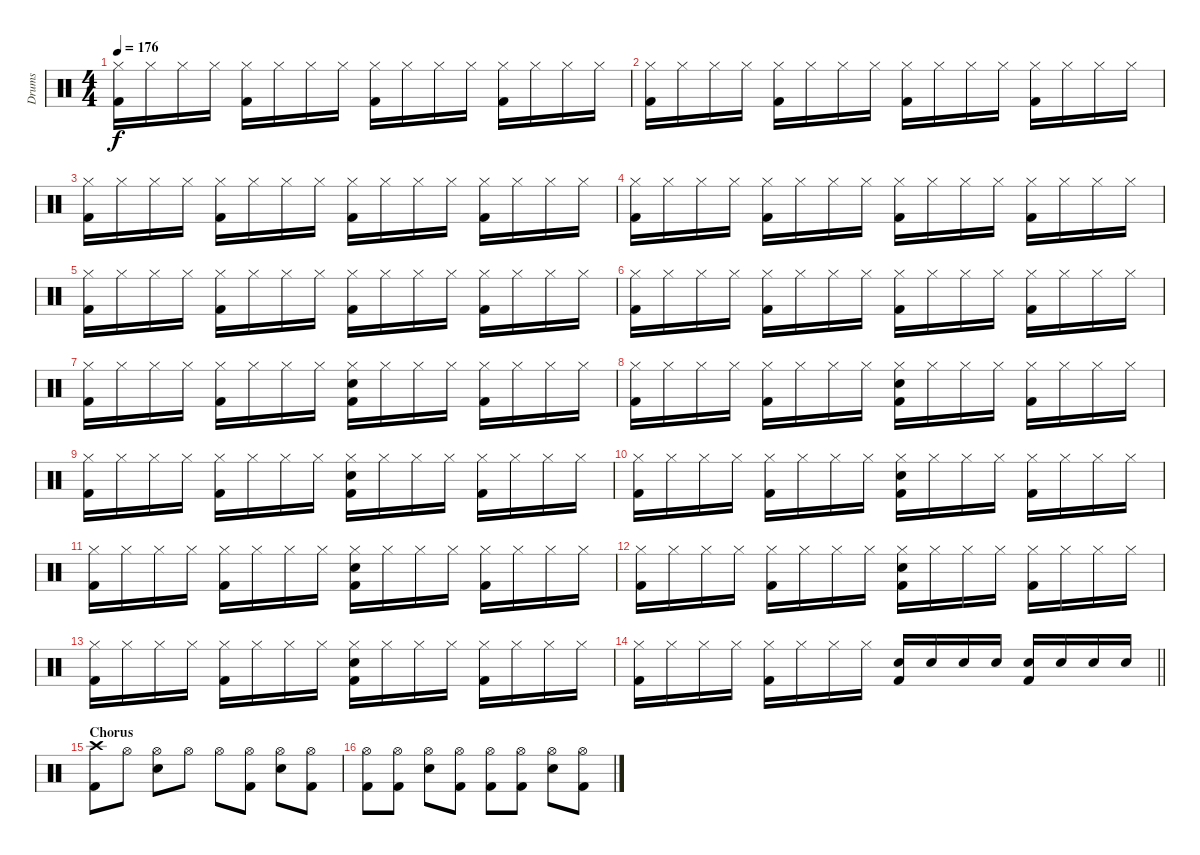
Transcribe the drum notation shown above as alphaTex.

\track ("Drums" "Drums") {instrument percussion}
\staff {score}
\articulation defaults
\ts (4 4)
\tempo 176
\clef neutral
\ks c
("Hi-Hat (closed)" "Kick (hit) 2").16{dy f} "Hi-Hat (closed)".16 "Hi-Hat (closed)".16 "Hi-Hat (closed)".16 ("Hi-Hat (closed)" "Kick (hit) 2").16 "Hi-Hat (closed)".16 "Hi-Hat (closed)".16 "Hi-Hat (closed)".16 ("Hi-Hat (closed)" "Kick (hit) 2").16 "Hi-Hat (closed)".16 "Hi-Hat (closed)".16 "Hi-Hat (closed)".16 ("Hi-Hat (closed)" "Kick (hit) 2").16 "Hi-Hat (closed)".16 "Hi-Hat (closed)".16 "Hi-Hat (closed)".16 |
("Hi-Hat (closed)" "Kick (hit) 2").16 "Hi-Hat (closed)".16 "Hi-Hat (closed)".16 "Hi-Hat (closed)".16 ("Hi-Hat (closed)" "Kick (hit) 2").16 "Hi-Hat (closed)".16 "Hi-Hat (closed)".16 "Hi-Hat (closed)".16 ("Hi-Hat (closed)" "Kick (hit) 2").16 "Hi-Hat (closed)".16 "Hi-Hat (closed)".16 "Hi-Hat (closed)".16 ("Hi-Hat (closed)" "Kick (hit) 2").16 "Hi-Hat (closed)".16 "Hi-Hat (closed)".16 "Hi-Hat (closed)".16 |
("Hi-Hat (closed)" "Kick (hit) 2").16 "Hi-Hat (closed)".16 "Hi-Hat (closed)".16 "Hi-Hat (closed)".16 ("Hi-Hat (closed)" "Kick (hit) 2").16 "Hi-Hat (closed)".16 "Hi-Hat (closed)".16 "Hi-Hat (closed)".16 ("Hi-Hat (closed)" "Kick (hit) 2").16 "Hi-Hat (closed)".16 "Hi-Hat (closed)".16 "Hi-Hat (closed)".16 ("Hi-Hat (closed)" "Kick (hit) 2").16 "Hi-Hat (closed)".16 "Hi-Hat (closed)".16 "Hi-Hat (closed)".16 |
("Hi-Hat (closed)" "Kick (hit) 2").16 "Hi-Hat (closed)".16 "Hi-Hat (closed)".16 "Hi-Hat (closed)".16 ("Hi-Hat (closed)" "Kick (hit) 2").16 "Hi-Hat (closed)".16 "Hi-Hat (closed)".16 "Hi-Hat (closed)".16 ("Hi-Hat (closed)" "Kick (hit) 2").16 "Hi-Hat (closed)".16 "Hi-Hat (closed)".16 "Hi-Hat (closed)".16 ("Hi-Hat (closed)" "Kick (hit) 2").16 "Hi-Hat (closed)".16 "Hi-Hat (closed)".16 "Hi-Hat (closed)".16 |
("Hi-Hat (closed)" "Kick (hit) 2").16 "Hi-Hat (closed)".16 "Hi-Hat (closed)".16 "Hi-Hat (closed)".16 ("Hi-Hat (closed)" "Kick (hit) 2").16 "Hi-Hat (closed)".16 "Hi-Hat (closed)".16 "Hi-Hat (closed)".16 ("Hi-Hat (closed)" "Kick (hit) 2").16 "Hi-Hat (closed)".16 "Hi-Hat (closed)".16 "Hi-Hat (closed)".16 ("Hi-Hat (closed)" "Kick (hit) 2").16 "Hi-Hat (closed)".16 "Hi-Hat (closed)".16 "Hi-Hat (closed)".16 |
("Hi-Hat (closed)" "Kick (hit) 2").16 "Hi-Hat (closed)".16 "Hi-Hat (closed)".16 "Hi-Hat (closed)".16 ("Hi-Hat (closed)" "Kick (hit) 2").16 "Hi-Hat (closed)".16 "Hi-Hat (closed)".16 "Hi-Hat (closed)".16 ("Hi-Hat (closed)" "Kick (hit) 2").16 "Hi-Hat (closed)".16 "Hi-Hat (closed)".16 "Hi-Hat (closed)".16 ("Hi-Hat (closed)" "Kick (hit) 2").16 "Hi-Hat (closed)".16 "Hi-Hat (closed)".16 "Hi-Hat (closed)".16 |
("Hi-Hat (closed)" "Kick (hit) 2").16 "Hi-Hat (closed)".16 "Hi-Hat (closed)".16 "Hi-Hat (closed)".16 ("Hi-Hat (closed)" "Kick (hit) 2").16 "Hi-Hat (closed)".16 "Hi-Hat (closed)".16 "Hi-Hat (closed)".16 ("Hi-Hat (closed)" "Electric Snare (hit)" "Kick (hit) 2").16 "Hi-Hat (closed)".16 "Hi-Hat (closed)".16 "Hi-Hat (closed)".16 ("Hi-Hat (closed)" "Kick (hit) 2").16 "Hi-Hat (closed)".16 "Hi-Hat (closed)".16 "Hi-Hat (closed)".16 |
("Hi-Hat (closed)" "Kick (hit) 2").16 "Hi-Hat (closed)".16 "Hi-Hat (closed)".16 "Hi-Hat (closed)".16 ("Hi-Hat (closed)" "Kick (hit) 2").16 "Hi-Hat (closed)".16 "Hi-Hat (closed)".16 "Hi-Hat (closed)".16 ("Hi-Hat (closed)" "Electric Snare (hit)" "Kick (hit) 2").16 "Hi-Hat (closed)".16 "Hi-Hat (closed)".16 "Hi-Hat (closed)".16 ("Hi-Hat (closed)" "Kick (hit) 2").16 "Hi-Hat (closed)".16 "Hi-Hat (closed)".16 "Hi-Hat (closed)".16 |
("Hi-Hat (closed)" "Kick (hit) 2").16 "Hi-Hat (closed)".16 "Hi-Hat (closed)".16 "Hi-Hat (closed)".16 ("Hi-Hat (closed)" "Kick (hit) 2").16 "Hi-Hat (closed)".16 "Hi-Hat (closed)".16 "Hi-Hat (closed)".16 ("Hi-Hat (closed)" "Electric Snare (hit)" "Kick (hit) 2").16 "Hi-Hat (closed)".16 "Hi-Hat (closed)".16 "Hi-Hat (closed)".16 ("Hi-Hat (closed)" "Kick (hit) 2").16 "Hi-Hat (closed)".16 "Hi-Hat (closed)".16 "Hi-Hat (closed)".16 |
("Hi-Hat (closed)" "Kick (hit) 2").16 "Hi-Hat (closed)".16 "Hi-Hat (closed)".16 "Hi-Hat (closed)".16 ("Hi-Hat (closed)" "Kick (hit) 2").16 "Hi-Hat (closed)".16 "Hi-Hat (closed)".16 "Hi-Hat (closed)".16 ("Hi-Hat (closed)" "Electric Snare (hit)" "Kick (hit) 2").16 "Hi-Hat (closed)".16 "Hi-Hat (closed)".16 "Hi-Hat (closed)".16 ("Hi-Hat (closed)" "Kick (hit) 2").16 "Hi-Hat (closed)".16 "Hi-Hat (closed)".16 "Hi-Hat (closed)".16 |
("Hi-Hat (closed)" "Kick (hit) 2").16 "Hi-Hat (closed)".16 "Hi-Hat (closed)".16 "Hi-Hat (closed)".16 ("Hi-Hat (closed)" "Kick (hit) 2").16 "Hi-Hat (closed)".16 "Hi-Hat (closed)".16 "Hi-Hat (closed)".16 ("Hi-Hat (closed)" "Electric Snare (hit)" "Kick (hit) 2").16 "Hi-Hat (closed)".16 "Hi-Hat (closed)".16 "Hi-Hat (closed)".16 ("Hi-Hat (closed)" "Kick (hit) 2").16 "Hi-Hat (closed)".16 "Hi-Hat (closed)".16 "Hi-Hat (closed)".16 |
("Hi-Hat (closed)" "Kick (hit) 2").16 "Hi-Hat (closed)".16 "Hi-Hat (closed)".16 "Hi-Hat (closed)".16 ("Hi-Hat (closed)" "Kick (hit) 2").16 "Hi-Hat (closed)".16 "Hi-Hat (closed)".16 "Hi-Hat (closed)".16 ("Hi-Hat (closed)" "Electric Snare (hit)" "Kick (hit) 2").16 "Hi-Hat (closed)".16 "Hi-Hat (closed)".16 "Hi-Hat (closed)".16 ("Hi-Hat (closed)" "Kick (hit) 2").16 "Hi-Hat (closed)".16 "Hi-Hat (closed)".16 "Hi-Hat (closed)".16 |
("Hi-Hat (closed)" "Kick (hit) 2").16 "Hi-Hat (closed)".16 "Hi-Hat (closed)".16 "Hi-Hat (closed)".16 ("Hi-Hat (closed)" "Kick (hit) 2").16 "Hi-Hat (closed)".16 "Hi-Hat (closed)".16 "Hi-Hat (closed)".16 ("Hi-Hat (closed)" "Electric Snare (hit)" "Kick (hit) 2").16 "Hi-Hat (closed)".16 "Hi-Hat (closed)".16 "Hi-Hat (closed)".16 ("Hi-Hat (closed)" "Kick (hit) 2").16 "Hi-Hat (closed)".16 "Hi-Hat (closed)".16 "Hi-Hat (closed)".16 |
\barLineRight lightlight
("Hi-Hat (closed)" "Kick (hit) 2").16 "Hi-Hat (closed)".16 "Hi-Hat (closed)".16 "Hi-Hat (closed)".16 ("Hi-Hat (closed)" "Kick (hit) 2").16 "Hi-Hat (closed)".16 "Hi-Hat (closed)".16 "Hi-Hat (closed)".16 ("Electric Snare (hit)" "Kick (hit) 2").16 "Electric Snare (hit)".16 "Electric Snare (hit)".16 "Electric Snare (hit)".16 ("Electric Snare (hit)" "Kick (hit) 2").16 "Electric Snare (hit)".16 "Electric Snare (hit)".16 "Electric Snare (hit)".16 |
\section ("" "Chorus")
("Crash high (hit)" "Kick (hit) 2").8 "Hi-Hat (open)".8 ("Hi-Hat (open)" "Electric Snare (hit)").8 "Hi-Hat (open)".8 "Hi-Hat (open)".8 ("Hi-Hat (open)" "Kick (hit) 2").8 ("Hi-Hat (open)" "Electric Snare (hit)").8 ("Hi-Hat (open)" "Kick (hit) 2").8 |
("Hi-Hat (open)" "Kick (hit) 2").8 ("Hi-Hat (open)" "Kick (hit) 2").8 ("Hi-Hat (open)" "Electric Snare (hit)").8 ("Hi-Hat (open)" "Kick (hit) 2").8 ("Hi-Hat (open)" "Kick (hit) 2").8 ("Hi-Hat (open)" "Kick (hit) 2").8 ("Hi-Hat (open)" "Electric Snare (hit)").8 ("Hi-Hat (open)" "Kick (hit) 2").8
